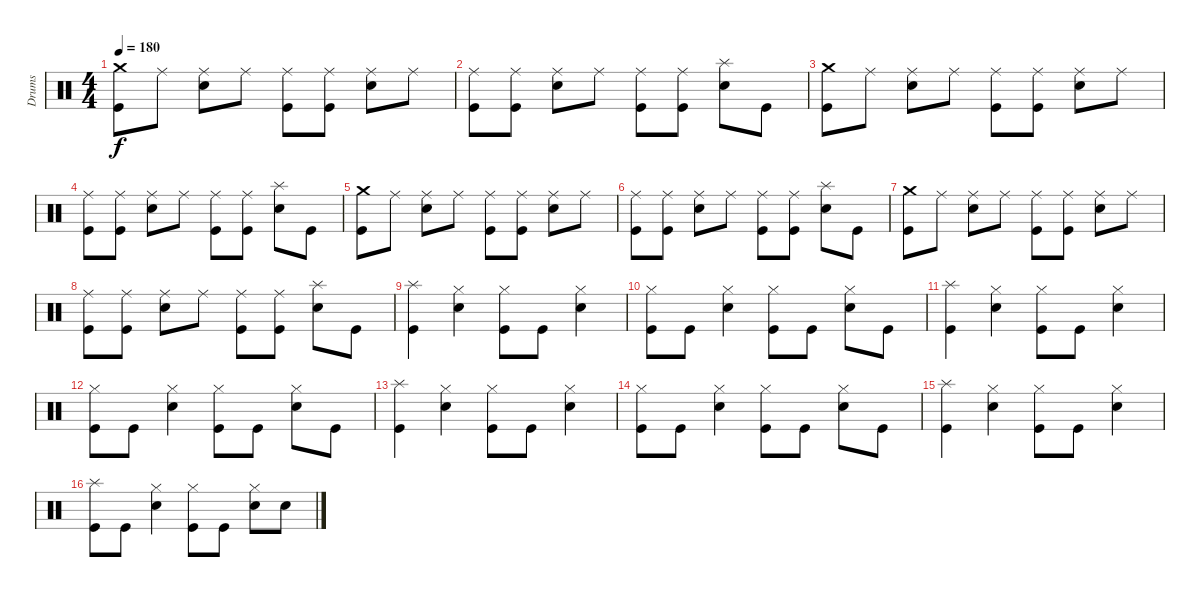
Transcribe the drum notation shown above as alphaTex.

\track ("Drums" "Drums") {instrument percussion}
\staff {score}
\articulation defaults
\ts (4 4)
\tempo 180
\clef neutral
\ks c
("Crash medium (hit)" "Kick (hit)").8{dy f} "Ride (middle)".8 ("Ride (middle)" "Electric Snare (hit)").8 "Ride (middle)".8 ("Ride (middle)" "Kick (hit)").8 ("Ride (middle)" "Kick (hit)").8 ("Ride (middle)" "Electric Snare (hit)").8 "Ride (middle)".8 |
("Ride (middle)" "Kick (hit)").8 ("Ride (middle)" "Kick (hit)").8 ("Ride (middle)" "Electric Snare (hit)").8 "Ride (middle)".8 ("Ride (middle)" "Kick (hit)").8 ("Ride (middle)" "Kick (hit)").8 ("Splash (hit)" "Electric Snare (hit)").8 "Kick (hit)".8 |
("Crash medium (hit)" "Kick (hit)").8 "Ride (middle)".8 ("Ride (middle)" "Electric Snare (hit)").8 "Ride (middle)".8 ("Ride (middle)" "Kick (hit)").8 ("Ride (middle)" "Kick (hit)").8 ("Ride (middle)" "Electric Snare (hit)").8 "Ride (middle)".8 |
("Ride (middle)" "Kick (hit)").8 ("Ride (middle)" "Kick (hit)").8 ("Ride (middle)" "Electric Snare (hit)").8 "Ride (middle)".8 ("Ride (middle)" "Kick (hit)").8 ("Ride (middle)" "Kick (hit)").8 ("Splash (hit)" "Electric Snare (hit)").8 "Kick (hit)".8 |
("Crash medium (hit)" "Kick (hit)").8 "Ride (middle)".8 ("Ride (middle)" "Electric Snare (hit)").8 "Ride (middle)".8 ("Ride (middle)" "Kick (hit)").8 ("Ride (middle)" "Kick (hit)").8 ("Ride (middle)" "Electric Snare (hit)").8 "Ride (middle)".8 |
("Ride (middle)" "Kick (hit)").8 ("Ride (middle)" "Kick (hit)").8 ("Ride (middle)" "Electric Snare (hit)").8 "Ride (middle)".8 ("Ride (middle)" "Kick (hit)").8 ("Ride (middle)" "Kick (hit)").8 ("Splash (hit)" "Electric Snare (hit)").8 "Kick (hit)".8 |
("Crash medium (hit)" "Kick (hit)").8 "Ride (middle)".8 ("Ride (middle)" "Electric Snare (hit)").8 "Ride (middle)".8 ("Ride (middle)" "Kick (hit)").8 ("Ride (middle)" "Kick (hit)").8 ("Ride (middle)" "Electric Snare (hit)").8 "Ride (middle)".8 |
("Ride (middle)" "Kick (hit)").8 ("Ride (middle)" "Kick (hit)").8 ("Ride (middle)" "Electric Snare (hit)").8 "Ride (middle)".8 ("Ride (middle)" "Kick (hit)").8 ("Ride (middle)" "Kick (hit)").8 ("Splash (hit)" "Electric Snare (hit)").8 "Kick (hit)".8 |
("Splash (hit)" "Kick (hit)").4 ("Hi-Hat (closed)" "Electric Snare (hit)").4 ("Hi-Hat (closed)" "Kick (hit)").8 "Kick (hit)".8 ("Hi-Hat (closed)" "Electric Snare (hit)").4 |
("Hi-Hat (closed)" "Kick (hit)").8 "Kick (hit)".8 ("Hi-Hat (closed)" "Electric Snare (hit)").4 ("Hi-Hat (closed)" "Kick (hit)").8 "Kick (hit)".8 ("Hi-Hat (closed)" "Electric Snare (hit)").8 "Kick (hit)".8 |
("Splash (hit)" "Kick (hit)").4 ("Hi-Hat (closed)" "Electric Snare (hit)").4 ("Hi-Hat (closed)" "Kick (hit)").8 "Kick (hit)".8 ("Hi-Hat (closed)" "Electric Snare (hit)").4 |
("Hi-Hat (closed)" "Kick (hit)").8 "Kick (hit)".8 ("Hi-Hat (closed)" "Electric Snare (hit)").4 ("Hi-Hat (closed)" "Kick (hit)").8 "Kick (hit)".8 ("Hi-Hat (closed)" "Electric Snare (hit)").8 "Kick (hit)".8 |
("Splash (hit)" "Kick (hit)").4 ("Hi-Hat (closed)" "Electric Snare (hit)").4 ("Hi-Hat (closed)" "Kick (hit)").8 "Kick (hit)".8 ("Hi-Hat (closed)" "Electric Snare (hit)").4 |
("Hi-Hat (closed)" "Kick (hit)").8 "Kick (hit)".8 ("Hi-Hat (closed)" "Electric Snare (hit)").4 ("Hi-Hat (closed)" "Kick (hit)").8 "Kick (hit)".8 ("Hi-Hat (closed)" "Electric Snare (hit)").8 "Kick (hit)".8 |
("Splash (hit)" "Kick (hit)").4 ("Hi-Hat (closed)" "Electric Snare (hit)").4 ("Hi-Hat (closed)" "Kick (hit)").8 "Kick (hit)".8 ("Hi-Hat (closed)" "Electric Snare (hit)").4 |
("Splash (hit)" "Kick (hit)").8 "Kick (hit)".8 ("Hi-Hat (closed)" "Electric Snare (hit)").4 ("Hi-Hat (closed)" "Kick (hit)").8 "Kick (hit)".8 ("Hi-Hat (closed)" "Electric Snare (hit)").8 "Electric Snare (hit)".8
